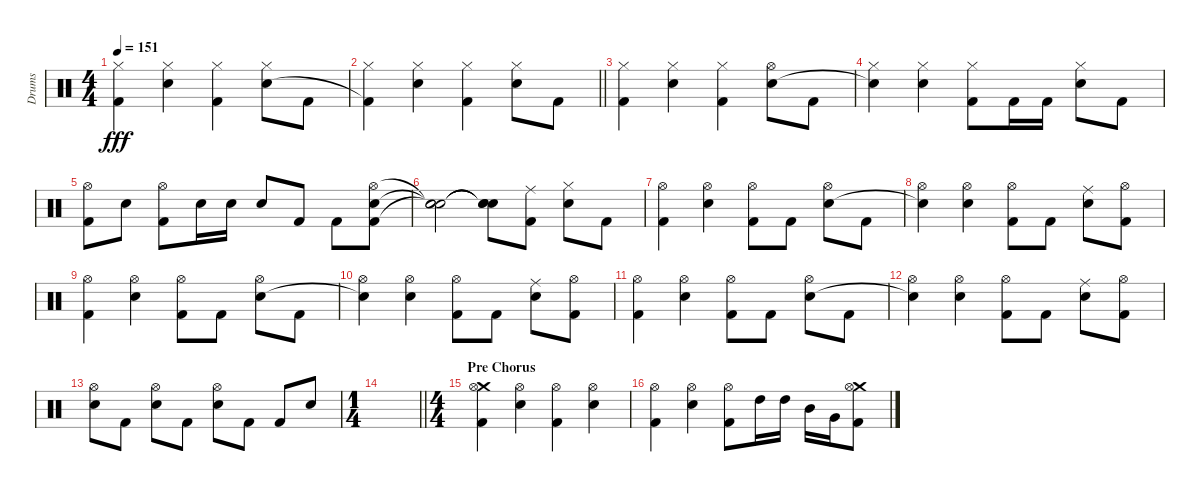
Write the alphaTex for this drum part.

\track ("Drums" "Drums") {instrument percussion}
\staff {score}
\articulation defaults
\ts (4 4)
\tempo 151
\clef neutral
\ks c
("Hi-Hat (closed)" "Kick (hit) 2").4{dy fff} ("Hi-Hat (closed)" "Electric Snare (hit)").4 ("Hi-Hat (closed)" "Kick (hit) 2").4 ("Hi-Hat (closed)" "Electric Snare (hit)").8 "Kick (hit) 2".8 |
\barLineRight lightlight
("Hi-Hat (closed)" "Kick (hit) 2"{t}).4 ("Hi-Hat (closed)" "Electric Snare (hit)").4 ("Hi-Hat (closed)" "Kick (hit) 2").4 ("Hi-Hat (closed)" "Electric Snare (hit)").8 "Kick (hit) 2".8 |
("Hi-Hat (closed)" "Kick (hit) 2").4 ("Hi-Hat (closed)" "Electric Snare (hit)").4 ("Hi-Hat (closed)" "Kick (hit) 2").4 ("Hi-Hat (open)" "Electric Snare (hit)").8 "Kick (hit) 2".8 |
("Hi-Hat (closed)" "Snare (hit)"{t}).4 ("Hi-Hat (closed)" "Electric Snare (hit)").4 ("Hi-Hat (closed)" "Kick (hit) 2").8 "Kick (hit) 2".16 "Kick (hit) 2".16 ("Hi-Hat (closed)" "Electric Snare (hit)").8 "Kick (hit) 2".8 |
("Hi-Hat (open)" "Kick (hit) 2").8 "Electric Snare (hit)".8 ("Hi-Hat (open)" "Kick (hit) 2").8 "Electric Snare (hit)".16 "Electric Snare (hit)".16 "Electric Snare (hit)".8 "Kick (hit) 2".8 "Kick (hit) 2".8 ("Hi-Hat (open)" "Electric Snare (hit)" "Kick (hit) 2").8 |
("Snare (hit)"{t} "Snare (hit)"{t} "Snare (hit)"{t}).2 ("Snare (hit)"{t} "Snare (hit)"{t} "Snare (hit)"{t}).8 ("Ride (middle)" "Kick (hit) 2").8 ("Hi-Hat (closed)" "Electric Snare (hit)").8 "Kick (hit) 2".8 |
("Hi-Hat (open)" "Kick (hit) 2").4 ("Hi-Hat (open)" "Electric Snare (hit)").4 ("Hi-Hat (open)" "Kick (hit) 2").8 "Kick (hit) 2".8 ("Hi-Hat (open)" "Electric Snare (hit)").8 "Kick (hit) 2".8 |
("Hi-Hat (open)" "Snare (hit)"{t}).4 ("Hi-Hat (open)" "Electric Snare (hit)").4 ("Hi-Hat (open)" "Kick (hit) 2").8 "Kick (hit) 2".8 ("Ride (middle)" "Electric Snare (hit)").8 ("Hi-Hat (open)" "Kick (hit) 2").8 |
("Hi-Hat (open)" "Kick (hit) 2").4 ("Hi-Hat (open)" "Electric Snare (hit)").4 ("Hi-Hat (open)" "Kick (hit) 2").8 "Kick (hit) 2".8 ("Hi-Hat (open)" "Electric Snare (hit)").8 "Kick (hit) 2".8 |
("Hi-Hat (open)" "Snare (hit)"{t}).4 ("Hi-Hat (open)" "Electric Snare (hit)").4 ("Hi-Hat (open)" "Kick (hit) 2").8 "Kick (hit) 2".8 ("Ride (middle)" "Electric Snare (hit)").8 ("Hi-Hat (open)" "Kick (hit) 2").8 |
("Hi-Hat (open)" "Kick (hit) 2").4 ("Hi-Hat (open)" "Electric Snare (hit)").4 ("Hi-Hat (open)" "Kick (hit) 2").8 "Kick (hit) 2".8 ("Hi-Hat (open)" "Electric Snare (hit)").8 "Kick (hit) 2".8 |
("Hi-Hat (open)" "Snare (hit)"{t}).4 ("Hi-Hat (open)" "Electric Snare (hit)").4 ("Hi-Hat (open)" "Kick (hit) 2").8 "Kick (hit) 2".8 ("Ride (middle)" "Electric Snare (hit)").8 ("Hi-Hat (open)" "Kick (hit) 2").8 |
("Hi-Hat (open)" "Electric Snare (hit)").8 "Kick (hit) 2".8 ("Hi-Hat (open)" "Electric Snare (hit)").8 "Kick (hit) 2".8 ("Hi-Hat (open)" "Electric Snare (hit)").8 "Kick (hit) 2".8 "Kick (hit) 2".8 "Electric Snare (hit)".8 |
\ts (1 4)
\barLineRight lightlight
|
\ts (4 4)
\section ("" "Pre Chorus")
("Crash medium (hit)" "Hi-Hat (open)" "Kick (hit) 2").4 ("Hi-Hat (open)" "Electric Snare (hit)").4 ("Hi-Hat (open)" "Kick (hit) 2").4 ("Hi-Hat (open)" "Electric Snare (hit)").4 |
("Hi-Hat (open)" "Kick (hit) 2").4 ("Hi-Hat (open)" "Electric Snare (hit)").4 ("Hi-Hat (open)" "Kick (hit) 2").8 "High Tom (hit)".16 "High Tom (hit)".16 "Mid Tom (hit)".16 "Very Low Tom (hit)".16 ("Crash medium (hit)" "Hi-Hat (open)" "Kick (hit) 2").8
